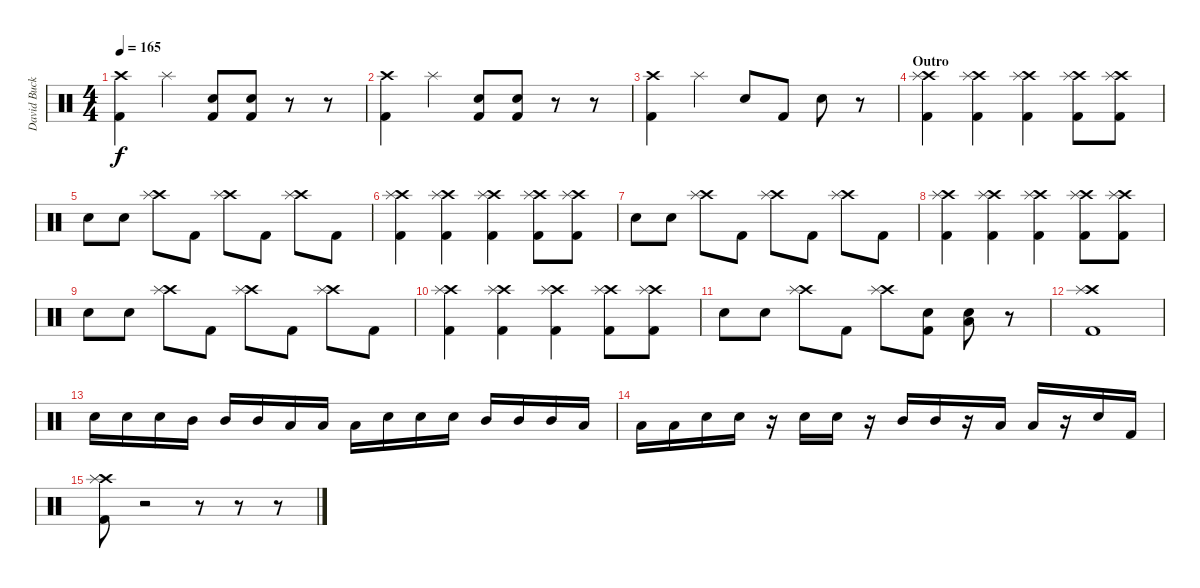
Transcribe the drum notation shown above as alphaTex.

\track ("David Buckner" "David Buck") {instrument percussion}
\staff {score}
\articulation defaults
\ts (4 4)
\tempo 165
\clef neutral
\ks c
("Crash high (hit)" "Kick (hit) 2").4{dy f} "Splash (hit)".4 ("Snare (hit) 2" "Kick (hit) 2").8 ("Snare (hit) 2" "Kick (hit) 2").8 r.8 r.8 |
("Crash high (hit)" "Kick (hit) 2").4 "Splash (hit)".4 ("Snare (hit) 2" "Kick (hit) 2").8 ("Snare (hit) 2" "Kick (hit) 2").8 r.8 r.8 |
("Crash high (hit)" "Kick (hit) 2").4 "Splash (hit)".4 "Snare (hit) 2".8 "Kick (hit) 2".8 "Snare (hit) 2".8 r.8 |
\section ("" "Outro")
("Crash high (hit)" "Splash (hit)" "Kick (hit) 2").4 ("Crash high (hit)" "Splash (hit)" "Kick (hit) 2").4 ("Crash high (hit)" "Splash (hit)" "Kick (hit) 2").4 ("Crash high (hit)" "Splash (hit)" "Kick (hit) 2").8 ("Crash high (hit)" "Splash (hit)" "Kick (hit) 2").8 |
"Snare (hit) 2".8 "Snare (hit) 2".8 ("Crash high (hit)" "Splash (hit)").8 "Kick (hit) 2".8 ("Crash high (hit)" "Splash (hit)").8 "Kick (hit) 2".8 ("Crash high (hit)" "Splash (hit)").8 "Kick (hit) 2".8 |
("Crash high (hit)" "Splash (hit)" "Kick (hit) 2").4 ("Crash high (hit)" "Splash (hit)" "Kick (hit) 2").4 ("Crash high (hit)" "Splash (hit)" "Kick (hit) 2").4 ("Crash high (hit)" "Splash (hit)" "Kick (hit) 2").8 ("Crash high (hit)" "Splash (hit)" "Kick (hit) 2").8 |
"Snare (hit) 2".8 "Snare (hit) 2".8 ("Crash high (hit)" "Splash (hit)").8 "Kick (hit) 2".8 ("Crash high (hit)" "Splash (hit)").8 "Kick (hit) 2".8 ("Crash high (hit)" "Splash (hit)").8 "Kick (hit) 2".8 |
("Crash high (hit)" "Splash (hit)" "Kick (hit) 2").4 ("Crash high (hit)" "Splash (hit)" "Kick (hit) 2").4 ("Crash high (hit)" "Splash (hit)" "Kick (hit) 2").4 ("Crash high (hit)" "Splash (hit)" "Kick (hit) 2").8 ("Crash high (hit)" "Splash (hit)" "Kick (hit) 2").8 |
"Snare (hit) 2".8 "Snare (hit) 2".8 ("Crash high (hit)" "Splash (hit)").8 "Kick (hit) 2".8 ("Crash high (hit)" "Splash (hit)").8 "Kick (hit) 2".8 ("Crash high (hit)" "Splash (hit)").8 "Kick (hit) 2".8 |
("Crash high (hit)" "Splash (hit)" "Kick (hit) 2").4 ("Crash high (hit)" "Splash (hit)" "Kick (hit) 2").4 ("Crash high (hit)" "Splash (hit)" "Kick (hit) 2").4 ("Crash high (hit)" "Splash (hit)" "Kick (hit) 2").8 ("Crash high (hit)" "Splash (hit)" "Kick (hit) 2").8 |
"Snare (hit) 2".8 "Snare (hit) 2".8 ("Crash high (hit)" "Splash (hit)").8 "Kick (hit) 2".8 ("Crash high (hit)" "Splash (hit)").8 ("Snare (hit) 2" "Kick (hit) 2").8 ("Snare (hit) 2" "Low Tom (hit)").8 r.8 |
("Crash high (hit)" "Splash (hit)" "Kick (hit) 2").1 |
"Snare (hit) 2".16 "Snare (hit) 2".16 "Snare (hit) 2".16 "Mid Tom (hit)".16 "Mid Tom (hit)".16 "Mid Tom (hit)".16 "Low Tom (hit)".16 "Low Tom (hit)".16 "Low Tom (hit)".16 "Snare (hit) 2".16 "Snare (hit) 2".16 "Snare (hit) 2".16 "Mid Tom (hit)".16 "Mid Tom (hit)".16 "Mid Tom (hit)".16 "Low Tom (hit)".16 |
"Low Tom (hit)".16 "Low Tom (hit)".16 "Snare (hit) 2".16 "Snare (hit) 2".16 r.16 "Snare (hit) 2".16 "Snare (hit) 2".16 r.16 "Mid Tom (hit)".16 "Mid Tom (hit)".16 r.16 "Low Tom (hit)".16 "Low Tom (hit)".16 r.16 "Snare (hit) 2".16 "Kick (hit) 2".16 |
("Crash high (hit)" "Splash (hit)" "Kick (hit) 2").8 r.2 r.8 r.8 r.8
